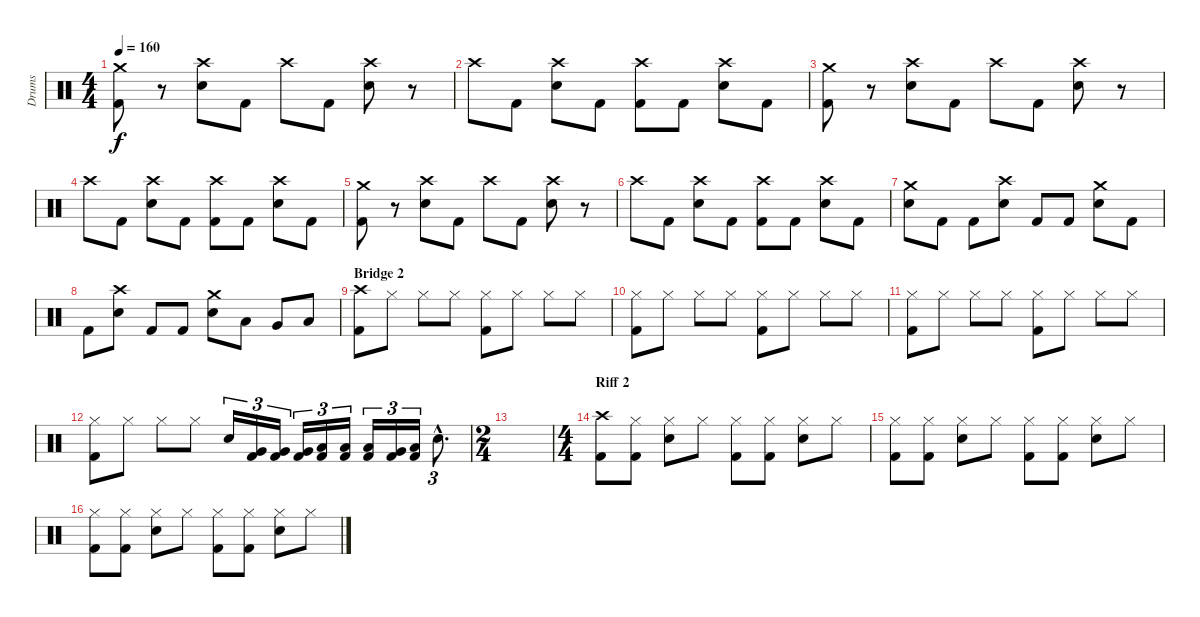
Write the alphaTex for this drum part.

\track ("Drums" "Drums") {instrument percussion}
\staff {score}
\articulation defaults
\ts (4 4)
\tempo 160
\clef neutral
\ks c
("Crash medium (hit)" "Kick (hit) 2").8{dy f} r.8 ("Crash high (hit)" "Electric Snare (hit)").8 "Kick (hit) 2".8 "Crash high (hit)".8 "Kick (hit) 2".8 ("Crash high (hit)" "Electric Snare (hit)").8 r.8 |
"Crash high (hit)".8 "Kick (hit) 2".8 ("Crash high (hit)" "Electric Snare (hit)").8 "Kick (hit) 2".8 ("Crash high (hit)" "Kick (hit) 2").8 "Kick (hit) 2".8 ("Crash high (hit)" "Electric Snare (hit)").8 "Kick (hit) 2".8 |
("Crash medium (hit)" "Kick (hit) 2").8 r.8 ("Crash high (hit)" "Electric Snare (hit)").8 "Kick (hit) 2".8 "Crash high (hit)".8 "Kick (hit) 2".8 ("Crash high (hit)" "Electric Snare (hit)").8 r.8 |
"Crash high (hit)".8 "Kick (hit) 2".8 ("Crash high (hit)" "Electric Snare (hit)").8 "Kick (hit) 2".8 ("Crash high (hit)" "Kick (hit) 2").8 "Kick (hit) 2".8 ("Crash high (hit)" "Electric Snare (hit)").8 "Kick (hit) 2".8 |
("Crash medium (hit)" "Kick (hit) 2").8 r.8 ("Crash high (hit)" "Electric Snare (hit)").8 "Kick (hit) 2".8 "Crash high (hit)".8 "Kick (hit) 2".8 ("Crash high (hit)" "Electric Snare (hit)").8 r.8 |
"Crash high (hit)".8 "Kick (hit) 2".8 ("Crash high (hit)" "Electric Snare (hit)").8 "Kick (hit) 2".8 ("Crash high (hit)" "Kick (hit) 2").8 "Kick (hit) 2".8 ("Crash high (hit)" "Electric Snare (hit)").8 "Kick (hit) 2".8 |
("Crash medium (hit)" "Electric Snare (hit)").8 "Kick (hit) 2".8 "Kick (hit) 2".8 ("Crash high (hit)" "Electric Snare (hit)").8 "Kick (hit) 2".8 "Kick (hit) 2".8 ("Crash medium (hit)" "Electric Snare (hit)").8 "Kick (hit) 2".8 |
"Kick (hit) 2".8 ("Crash high (hit)" "Electric Snare (hit)").8 "Kick (hit) 2".8 "Kick (hit) 2".8 ("Crash medium (hit)" "Electric Snare (hit)").8 "Low Tom (hit)".8 "Very Low Tom (hit)".8 "Low Floor Tom (hit)".8 |
\section ("" "Bridge 2")
("Crash high (hit)" "Kick (hit) 2").8 "Hi-Hat (closed)".8 "Hi-Hat (closed)".8 "Hi-Hat (closed)".8 ("Hi-Hat (closed)" "Kick (hit) 2").8 "Hi-Hat (closed)".8 "Hi-Hat (closed)".8 "Hi-Hat (closed)".8 |
("Hi-Hat (closed)" "Kick (hit) 2").8 "Hi-Hat (closed)".8 "Hi-Hat (closed)".8 "Hi-Hat (closed)".8 ("Hi-Hat (closed)" "Kick (hit) 2").8 "Hi-Hat (closed)".8 "Hi-Hat (closed)".8 "Hi-Hat (closed)".8 |
("Hi-Hat (closed)" "Kick (hit) 2").8 "Hi-Hat (closed)".8 "Hi-Hat (closed)".8 "Hi-Hat (closed)".8 ("Hi-Hat (closed)" "Kick (hit) 2").8 "Hi-Hat (closed)".8 "Hi-Hat (closed)".8 "Hi-Hat (closed)".8 |
("Hi-Hat (closed)" "Kick (hit) 2").8 "Hi-Hat (closed)".8 "Hi-Hat (closed)".8 "Hi-Hat (closed)".8 "Electric Snare (hit)".16{tu (3 2)} ("Very Low Tom (hit)" "Kick (hit) 2").16{tu (3 2)} ("Very Low Tom (hit)" "Kick (hit) 2").16{tu (3 2)} ("Very Low Tom (hit)" "Kick (hit) 2").16{tu (3 2)} ("Low Floor Tom (hit)" "Kick (hit) 2").16{tu (3 2)} ("Low Floor Tom (hit)" "Kick (hit) 2").16{tu (3 2)} ("Low Floor Tom (hit)" "Kick (hit) 2").16{tu (3 2)} ("Very Low Tom (hit)" "Kick (hit) 2").16{tu (3 2)} ("Low Floor Tom (hit)" "Kick (hit) 2").16{tu (3 2)} "Electric Snare (hit)"{hac}.8{d tu (3 2)} |
\ts (2 4)
|
\ts (4 4)
\section ("" "Riff 2")
("Crash high (hit)" "Kick (hit) 2").8 ("Hi-Hat (closed)" "Kick (hit) 2").8 ("Hi-Hat (closed)" "Electric Snare (hit)").8 "Hi-Hat (closed)".8 ("Hi-Hat (closed)" "Kick (hit) 2").8 ("Hi-Hat (closed)" "Kick (hit) 2").8 ("Hi-Hat (closed)" "Electric Snare (hit)").8 "Hi-Hat (closed)".8 |
("Hi-Hat (closed)" "Kick (hit) 2").8 ("Hi-Hat (closed)" "Kick (hit) 2").8 ("Hi-Hat (closed)" "Electric Snare (hit)").8 "Hi-Hat (closed)".8 ("Hi-Hat (closed)" "Kick (hit) 2").8 ("Hi-Hat (closed)" "Kick (hit) 2").8 ("Hi-Hat (closed)" "Electric Snare (hit)").8 "Hi-Hat (closed)".8 |
("Hi-Hat (closed)" "Kick (hit) 2").8 ("Hi-Hat (closed)" "Kick (hit) 2").8 ("Hi-Hat (closed)" "Electric Snare (hit)").8 "Hi-Hat (closed)".8 ("Hi-Hat (closed)" "Kick (hit) 2").8 ("Hi-Hat (closed)" "Kick (hit) 2").8 ("Hi-Hat (closed)" "Electric Snare (hit)").8 "Hi-Hat (closed)".8
